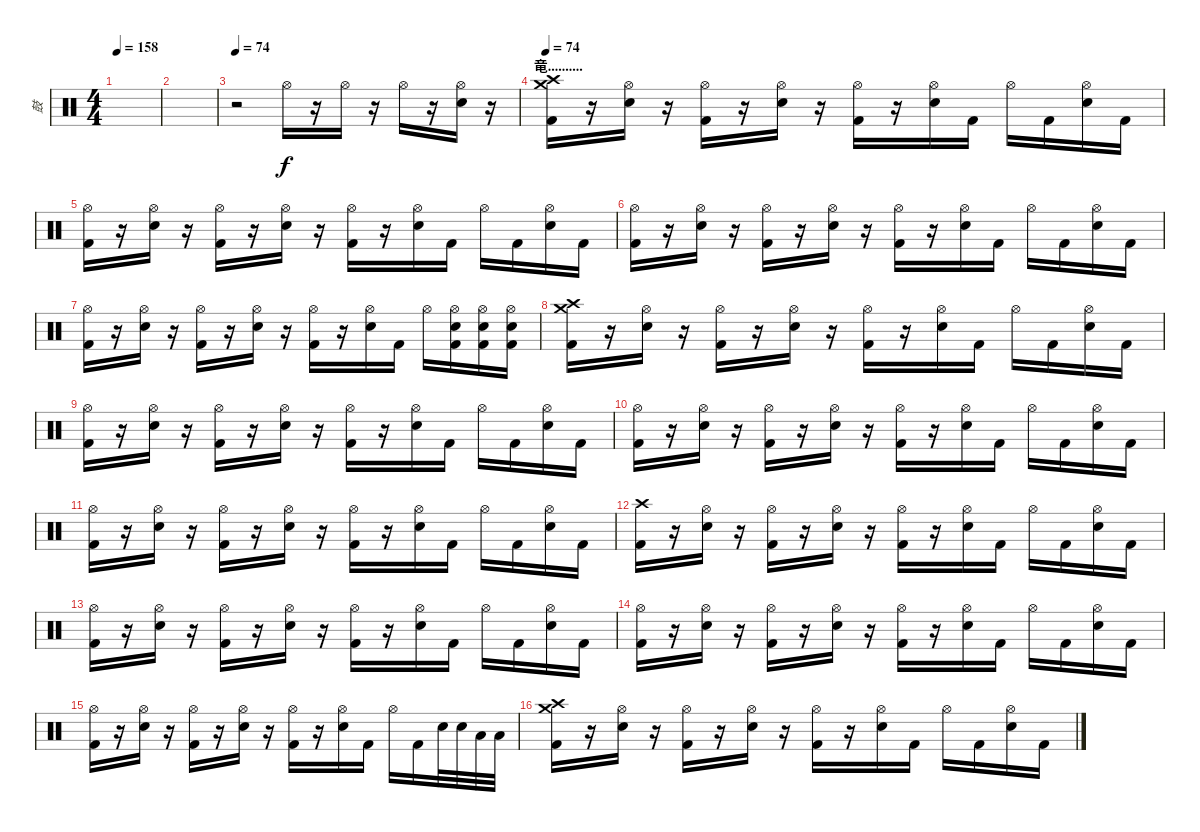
\track ("鼓" "鼓") {instrument percussion}
\staff {score}
\articulation defaults
\ts (4 4)
\tempo 158
\clef neutral
\ks c
|
|
\tempo 74
r.2 "Hi-Hat (open)".16 r.16 "Hi-Hat (open)".16 r.16 "Hi-Hat (open)".16 r.16 ("Hi-Hat (open)" "Electric Snare (hit)").16 r.16 |
\section ("" "竜..........")
\tempo 74
("Crash high (hit)" "Crash medium (hit)" "Kick (hit) 2").16 r.16 ("Hi-Hat (open)" "Electric Snare (hit)").16 r.16 ("Hi-Hat (open)" "Kick (hit) 2").16 r.16 ("Hi-Hat (open)" "Electric Snare (hit)").16 r.16 ("Hi-Hat (open)" "Kick (hit) 2").16 r.16 ("Hi-Hat (open)" "Electric Snare (hit)").16 "Kick (hit) 2".16 "Hi-Hat (open)".16 "Kick (hit) 2".16 ("Hi-Hat (open)" "Electric Snare (hit)").16 "Kick (hit) 2".16 |
("Hi-Hat (open)" "Kick (hit) 2").16 r.16 ("Hi-Hat (open)" "Electric Snare (hit)").16 r.16 ("Hi-Hat (open)" "Kick (hit) 2").16 r.16 ("Hi-Hat (open)" "Electric Snare (hit)").16 r.16 ("Hi-Hat (open)" "Kick (hit) 2").16 r.16 ("Hi-Hat (open)" "Electric Snare (hit)").16 "Kick (hit) 2".16 "Hi-Hat (open)".16 "Kick (hit) 2".16 ("Hi-Hat (open)" "Electric Snare (hit)").16 "Kick (hit) 2".16 |
("Hi-Hat (open)" "Kick (hit) 2").16 r.16 ("Hi-Hat (open)" "Electric Snare (hit)").16 r.16 ("Hi-Hat (open)" "Kick (hit) 2").16 r.16 ("Hi-Hat (open)" "Electric Snare (hit)").16 r.16 ("Hi-Hat (open)" "Kick (hit) 2").16 r.16 ("Hi-Hat (open)" "Electric Snare (hit)").16 "Kick (hit) 2".16 "Hi-Hat (open)".16 "Kick (hit) 2".16 ("Hi-Hat (open)" "Electric Snare (hit)").16 "Kick (hit) 2".16 |
("Hi-Hat (open)" "Kick (hit) 2").16 r.16 ("Hi-Hat (open)" "Electric Snare (hit)").16 r.16 ("Hi-Hat (open)" "Kick (hit) 2").16 r.16 ("Hi-Hat (open)" "Electric Snare (hit)").16 r.16 ("Hi-Hat (open)" "Kick (hit) 2").16 r.16 ("Hi-Hat (open)" "Electric Snare (hit)").16 "Kick (hit) 2".16 "Hi-Hat (open)".16 ("Hi-Hat (open)" "Electric Snare (hit)" "Kick (hit) 2").16 ("Hi-Hat (open)" "Electric Snare (hit)" "Kick (hit) 2").16 ("Hi-Hat (open)" "Electric Snare (hit)" "Kick (hit) 2").16 |
("Crash high (hit)" "Crash medium (hit)" "Kick (hit) 2").16 r.16 ("Hi-Hat (open)" "Electric Snare (hit)").16 r.16 ("Hi-Hat (open)" "Kick (hit) 2").16 r.16 ("Hi-Hat (open)" "Electric Snare (hit)").16 r.16 ("Hi-Hat (open)" "Kick (hit) 2").16 r.16 ("Hi-Hat (open)" "Electric Snare (hit)").16 "Kick (hit) 2".16 "Hi-Hat (open)".16 "Kick (hit) 2".16 ("Hi-Hat (open)" "Electric Snare (hit)").16 "Kick (hit) 2".16 |
("Hi-Hat (open)" "Kick (hit) 2").16 r.16 ("Hi-Hat (open)" "Electric Snare (hit)").16 r.16 ("Hi-Hat (open)" "Kick (hit) 2").16 r.16 ("Hi-Hat (open)" "Electric Snare (hit)").16 r.16 ("Hi-Hat (open)" "Kick (hit) 2").16 r.16 ("Hi-Hat (open)" "Electric Snare (hit)").16 "Kick (hit) 2".16 "Hi-Hat (open)".16 "Kick (hit) 2".16 ("Hi-Hat (open)" "Electric Snare (hit)").16 "Kick (hit) 2".16 |
("Hi-Hat (open)" "Kick (hit) 2").16 r.16 ("Hi-Hat (open)" "Electric Snare (hit)").16 r.16 ("Hi-Hat (open)" "Kick (hit) 2").16 r.16 ("Hi-Hat (open)" "Electric Snare (hit)").16 r.16 ("Hi-Hat (open)" "Kick (hit) 2").16 r.16 ("Hi-Hat (open)" "Electric Snare (hit)").16 "Kick (hit) 2".16 "Hi-Hat (open)".16 "Kick (hit) 2".16 ("Hi-Hat (open)" "Electric Snare (hit)").16 "Kick (hit) 2".16 |
("Hi-Hat (open)" "Kick (hit) 2").16 r.16 ("Hi-Hat (open)" "Electric Snare (hit)").16 r.16 ("Hi-Hat (open)" "Kick (hit) 2").16 r.16 ("Hi-Hat (open)" "Electric Snare (hit)").16 r.16 ("Hi-Hat (open)" "Kick (hit) 2").16 r.16 ("Hi-Hat (open)" "Electric Snare (hit)").16 "Kick (hit) 2".16 "Hi-Hat (open)".16 "Kick (hit) 2".16 ("Hi-Hat (open)" "Electric Snare (hit)").16 "Kick (hit) 2".16 |
("Crash high (hit)" "Kick (hit) 2").16 r.16 ("Hi-Hat (open)" "Electric Snare (hit)").16 r.16 ("Hi-Hat (open)" "Kick (hit) 2").16 r.16 ("Hi-Hat (open)" "Electric Snare (hit)").16 r.16 ("Hi-Hat (open)" "Kick (hit) 2").16 r.16 ("Hi-Hat (open)" "Electric Snare (hit)").16 "Kick (hit) 2".16 "Hi-Hat (open)".16 "Kick (hit) 2".16 ("Hi-Hat (open)" "Electric Snare (hit)").16 "Kick (hit) 2".16 |
("Hi-Hat (open)" "Kick (hit) 2").16 r.16 ("Hi-Hat (open)" "Electric Snare (hit)").16 r.16 ("Hi-Hat (open)" "Kick (hit) 2").16 r.16 ("Hi-Hat (open)" "Electric Snare (hit)").16 r.16 ("Hi-Hat (open)" "Kick (hit) 2").16 r.16 ("Hi-Hat (open)" "Electric Snare (hit)").16 "Kick (hit) 2".16 "Hi-Hat (open)".16 "Kick (hit) 2".16 ("Hi-Hat (open)" "Electric Snare (hit)").16 "Kick (hit) 2".16 |
("Hi-Hat (open)" "Kick (hit) 2").16 r.16 ("Hi-Hat (open)" "Electric Snare (hit)").16 r.16 ("Hi-Hat (open)" "Kick (hit) 2").16 r.16 ("Hi-Hat (open)" "Electric Snare (hit)").16 r.16 ("Hi-Hat (open)" "Kick (hit) 2").16 r.16 ("Hi-Hat (open)" "Electric Snare (hit)").16 "Kick (hit) 2".16 "Hi-Hat (open)".16 "Kick (hit) 2".16 ("Hi-Hat (open)" "Electric Snare (hit)").16 "Kick (hit) 2".16 |
("Hi-Hat (open)" "Kick (hit) 2").16 r.16 ("Hi-Hat (open)" "Electric Snare (hit)").16 r.16 ("Hi-Hat (open)" "Kick (hit) 2").16 r.16 ("Hi-Hat (open)" "Electric Snare (hit)").16 r.16 ("Hi-Hat (open)" "Kick (hit) 2").16 r.16 ("Hi-Hat (open)" "Electric Snare (hit)").16 "Kick (hit) 2".16 "Hi-Hat (open)".16 "Kick (hit) 2".16 "Electric Snare (hit)".32 "Electric Snare (hit)".32 "Low Tom (hit)".32 "Low Tom (hit)".32 |
("Crash high (hit)" "Crash medium (hit)" "Kick (hit) 2").16 r.16 ("Hi-Hat (open)" "Electric Snare (hit)").16 r.16 ("Hi-Hat (open)" "Kick (hit) 2").16 r.16 ("Hi-Hat (open)" "Electric Snare (hit)").16 r.16 ("Hi-Hat (open)" "Kick (hit) 2").16 r.16 ("Hi-Hat (open)" "Electric Snare (hit)").16 "Kick (hit) 2".16 "Hi-Hat (open)".16 "Kick (hit) 2".16 ("Hi-Hat (open)" "Electric Snare (hit)").16 "Kick (hit) 2".16
